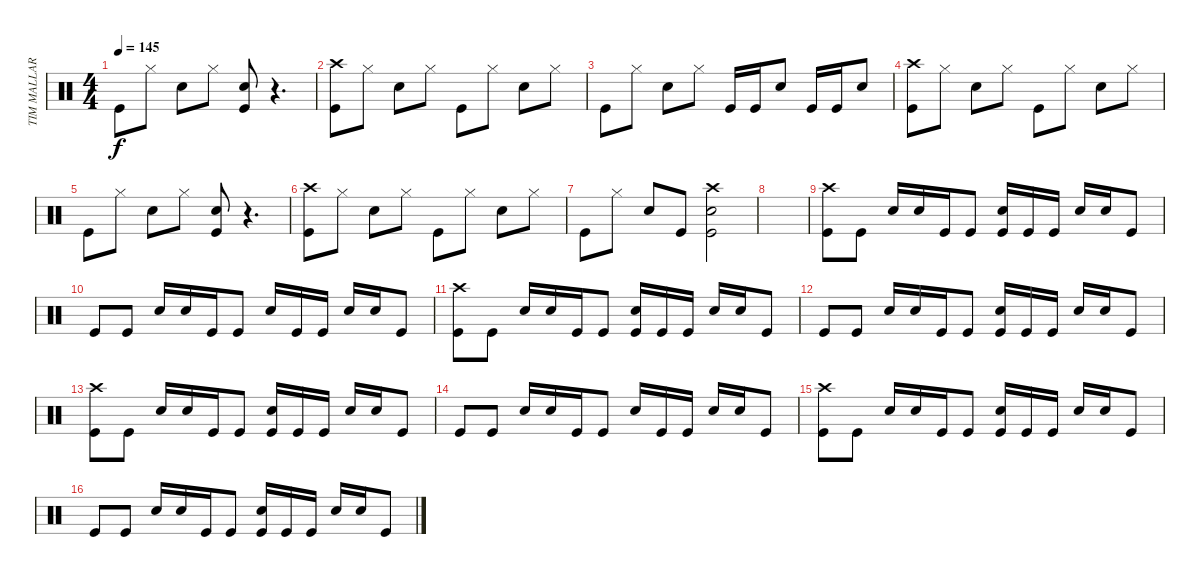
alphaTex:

\track ("TIM MALLARE - drums" "TIM MALLAR") {instrument percussion}
\staff {score}
\articulation defaults
\ts (4 4)
\tempo 145
\clef neutral
\ks c "Kick (hit)".8{dy f} "Hi-Hat (closed)".8 "Electric Snare (hit)".8 "Hi-Hat (closed)".8
("Electric Snare (hit)" "Kick (hit)").8 r.4{d} |
("Crash high (hit)" "Kick (hit)").8 "Hi-Hat (closed)".8 "Electric Snare (hit)".8 "Hi-Hat (closed)".8 "Kick (hit)".8 "Hi-Hat (closed)".8 "Electric Snare (hit)".8 "Hi-Hat (closed)".8 |
"Kick (hit)".8 "Hi-Hat (closed)".8 "Electric Snare (hit)".8 "Hi-Hat (closed)".8 "Kick (hit)".16 "Kick (hit)".16 "Electric Snare (hit)".8 "Kick (hit)".16 "Kick (hit)".16 "Electric Snare (hit)".8 |
("Crash high (hit)" "Kick (hit)").8 "Hi-Hat (closed)".8 "Electric Snare (hit)".8 "Hi-Hat (closed)".8 "Kick (hit)".8 "Hi-Hat (closed)".8 "Electric Snare (hit)".8 "Hi-Hat (closed)".8 |
"Kick (hit)".8 "Hi-Hat (closed)".8 "Electric Snare (hit)".8 "Hi-Hat (closed)".8 ("Electric Snare (hit)" "Kick (hit)").8 r.4{d} |
("Crash high (hit)" "Kick (hit)").8 "Hi-Hat (closed)".8 "Electric Snare (hit)".8 "Hi-Hat (closed)".8 "Kick (hit)".8 "Hi-Hat (closed)".8 "Electric Snare (hit)".8 "Hi-Hat (closed)".8 |
"Kick (hit)".8 "Hi-Hat (closed)".8 "Electric Snare (hit)".8 "Kick (hit)".8 ("Crash high (hit)" "Electric Snare (hit)" "Kick (hit)").2 |
|
("Crash high (hit)" "Kick (hit)").8 "Kick (hit)".8 "Electric Snare (hit)".16 "Electric Snare (hit)".16 "Kick (hit)".16 "Kick (hit)".8 ("Electric Snare (hit)" "Kick (hit)").16 "Kick (hit)".16 "Kick (hit)".16 "Electric Snare (hit)".16 "Electric Snare (hit)".16 "Kick (hit)".8 |
"Kick (hit)".8 "Kick (hit)".8 "Electric Snare (hit)".16 "Electric Snare (hit)".16 "Kick (hit)".16 "Kick (hit)".8 "Electric Snare (hit)".16 "Kick (hit)".16 "Kick (hit)".16 "Electric Snare (hit)".16 "Electric Snare (hit)".16 "Kick (hit)".8 |
("Crash high (hit)" "Kick (hit)").8 "Kick (hit)".8 "Electric Snare (hit)".16 "Electric Snare (hit)".16 "Kick (hit)".16 "Kick (hit)".8 ("Electric Snare (hit)" "Kick (hit)").16 "Kick (hit)".16 "Kick (hit)".16 "Electric Snare (hit)".16 "Electric Snare (hit)".16 "Kick (hit)".8 |
"Kick (hit)".8 "Kick (hit)".8 "Electric Snare (hit)".16 "Electric Snare (hit)".16 "Kick (hit)".16 "Kick (hit)".8 ("Electric Snare (hit)" "Kick (hit)").16 "Kick (hit)".16 "Kick (hit)".16 "Electric Snare (hit)".16 "Electric Snare (hit)".16 "Kick (hit)".8 |
("Crash high (hit)" "Kick (hit)").8 "Kick (hit)".8 "Electric Snare (hit)".16 "Electric Snare (hit)".16 "Kick (hit)".16 "Kick (hit)".8 ("Electric Snare (hit)" "Kick (hit)").16 "Kick (hit)".16 "Kick (hit)".16 "Electric Snare (hit)".16 "Electric Snare (hit)".16 "Kick (hit)".8 |
"Kick (hit)".8 "Kick (hit)".8 "Electric Snare (hit)".16 "Electric Snare (hit)".16 "Kick (hit)".16 "Kick (hit)".8 "Electric Snare (hit)".16 "Kick (hit)".16 "Kick (hit)".16 "Electric Snare (hit)".16 "Electric Snare (hit)".16 "Kick (hit)".8 |
("Crash high (hit)" "Kick (hit)").8 "Kick (hit)".8 "Electric Snare (hit)".16 "Electric Snare (hit)".16 "Kick (hit)".16 "Kick (hit)".8 ("Electric Snare (hit)" "Kick (hit)").16 "Kick (hit)".16 "Kick (hit)".16 "Electric Snare (hit)".16 "Electric Snare (hit)".16 "Kick (hit)".8 |
"Kick (hit)".8 "Kick (hit)".8 "Electric Snare (hit)".16 "Electric Snare (hit)".16 "Kick (hit)".16 "Kick (hit)".8 ("Electric Snare (hit)" "Kick (hit)").16 "Kick (hit)".16 "Kick (hit)".16 "Electric Snare (hit)".16 "Electric Snare (hit)".16 "Kick (hit)".8
